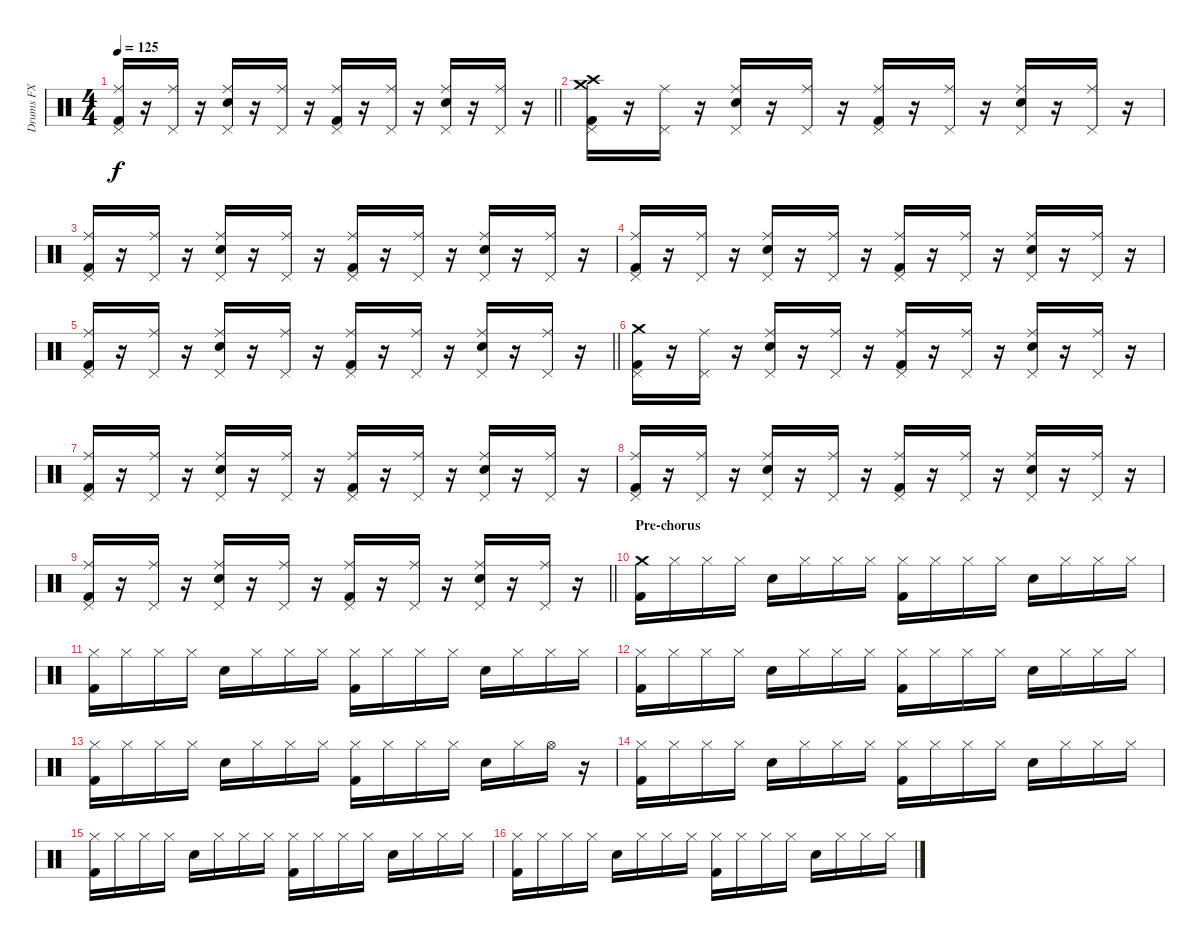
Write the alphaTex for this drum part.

\track ("Drums FX" "Drums FX") {instrument percussion}
\staff {score}
\articulation defaults
\ts (4 4)
\tempo 125
\clef neutral
\barLineRight lightlight
\ks c
("Ride (middle)" "Pedal Hi-Hat (hit)" "Kick (hit) 2").16{dy f} r.16 ("Ride (middle)" "Pedal Hi-Hat (hit)").16 r.16 ("Ride (middle)" "Snare (hit) 2" "Pedal Hi-Hat (hit)").16 r.16 ("Ride (middle)" "Pedal Hi-Hat (hit)").16 r.16 ("Ride (middle)" "Pedal Hi-Hat (hit)" "Kick (hit) 2").16 r.16 ("Ride (middle)" "Pedal Hi-Hat (hit)").16 r.16 ("Ride (middle)" "Snare (hit) 2" "Pedal Hi-Hat (hit)").16 r.16 ("Ride (middle)" "Pedal Hi-Hat (hit)").16 r.16 |
("Crash medium (hit)" "Crash high (hit)" "Pedal Hi-Hat (hit)" "Kick (hit) 2").16 r.16 ("Ride (middle)" "Pedal Hi-Hat (hit)").16 r.16 ("Ride (middle)" "Snare (hit) 2" "Pedal Hi-Hat (hit)").16 r.16 ("Ride (middle)" "Pedal Hi-Hat (hit)").16 r.16 ("Ride (middle)" "Pedal Hi-Hat (hit)" "Kick (hit) 2").16 r.16 ("Ride (middle)" "Pedal Hi-Hat (hit)").16 r.16 ("Ride (middle)" "Snare (hit) 2" "Pedal Hi-Hat (hit)").16 r.16 ("Ride (middle)" "Pedal Hi-Hat (hit)").16 r.16 |
("Ride (middle)" "Pedal Hi-Hat (hit)" "Kick (hit) 2").16 r.16 ("Ride (middle)" "Pedal Hi-Hat (hit)").16 r.16 ("Ride (middle)" "Snare (hit) 2" "Pedal Hi-Hat (hit)").16 r.16 ("Ride (middle)" "Pedal Hi-Hat (hit)").16 r.16 ("Ride (middle)" "Pedal Hi-Hat (hit)" "Kick (hit) 2").16 r.16 ("Ride (middle)" "Pedal Hi-Hat (hit)").16 r.16 ("Ride (middle)" "Snare (hit) 2" "Pedal Hi-Hat (hit)").16 r.16 ("Ride (middle)" "Pedal Hi-Hat (hit)").16 r.16 |
("Ride (middle)" "Pedal Hi-Hat (hit)" "Kick (hit) 2").16 r.16 ("Ride (middle)" "Pedal Hi-Hat (hit)").16 r.16 ("Ride (middle)" "Snare (hit) 2" "Pedal Hi-Hat (hit)").16 r.16 ("Ride (middle)" "Pedal Hi-Hat (hit)").16 r.16 ("Ride (middle)" "Pedal Hi-Hat (hit)" "Kick (hit) 2").16 r.16 ("Ride (middle)" "Pedal Hi-Hat (hit)").16 r.16 ("Ride (middle)" "Snare (hit) 2" "Pedal Hi-Hat (hit)").16 r.16 ("Ride (middle)" "Pedal Hi-Hat (hit)").16 r.16 |
\barLineRight lightlight
("Ride (middle)" "Pedal Hi-Hat (hit)" "Kick (hit) 2").16 r.16 ("Ride (middle)" "Pedal Hi-Hat (hit)").16 r.16 ("Ride (middle)" "Snare (hit) 2" "Pedal Hi-Hat (hit)").16 r.16 ("Ride (middle)" "Pedal Hi-Hat (hit)").16 r.16 ("Ride (middle)" "Pedal Hi-Hat (hit)" "Kick (hit) 2").16 r.16 ("Ride (middle)" "Pedal Hi-Hat (hit)").16 r.16 ("Ride (middle)" "Snare (hit) 2" "Pedal Hi-Hat (hit)").16 r.16 ("Ride (middle)" "Pedal Hi-Hat (hit)").16 r.16 |
("Crash medium (hit)" "Pedal Hi-Hat (hit)" "Kick (hit) 2").16 r.16 ("Ride (middle)" "Pedal Hi-Hat (hit)").16 r.16 ("Ride (middle)" "Snare (hit) 2" "Pedal Hi-Hat (hit)").16 r.16 ("Ride (middle)" "Pedal Hi-Hat (hit)").16 r.16 ("Ride (middle)" "Pedal Hi-Hat (hit)" "Kick (hit) 2").16 r.16 ("Ride (middle)" "Pedal Hi-Hat (hit)").16 r.16 ("Ride (middle)" "Snare (hit) 2" "Pedal Hi-Hat (hit)").16 r.16 ("Ride (middle)" "Pedal Hi-Hat (hit)").16 r.16 |
("Ride (middle)" "Pedal Hi-Hat (hit)" "Kick (hit) 2").16 r.16 ("Ride (middle)" "Pedal Hi-Hat (hit)").16 r.16 ("Ride (middle)" "Snare (hit) 2" "Pedal Hi-Hat (hit)").16 r.16 ("Ride (middle)" "Pedal Hi-Hat (hit)").16 r.16 ("Ride (middle)" "Pedal Hi-Hat (hit)" "Kick (hit) 2").16 r.16 ("Ride (middle)" "Pedal Hi-Hat (hit)").16 r.16 ("Ride (middle)" "Snare (hit) 2" "Pedal Hi-Hat (hit)").16 r.16 ("Ride (middle)" "Pedal Hi-Hat (hit)").16 r.16 |
("Ride (middle)" "Pedal Hi-Hat (hit)" "Kick (hit) 2").16 r.16 ("Ride (middle)" "Pedal Hi-Hat (hit)").16 r.16 ("Ride (middle)" "Snare (hit) 2" "Pedal Hi-Hat (hit)").16 r.16 ("Ride (middle)" "Pedal Hi-Hat (hit)").16 r.16 ("Ride (middle)" "Pedal Hi-Hat (hit)" "Kick (hit) 2").16 r.16 ("Ride (middle)" "Pedal Hi-Hat (hit)").16 r.16 ("Ride (middle)" "Snare (hit) 2" "Pedal Hi-Hat (hit)").16 r.16 ("Ride (middle)" "Pedal Hi-Hat (hit)").16 r.16 |
\barLineRight lightlight
("Ride (middle)" "Pedal Hi-Hat (hit)" "Kick (hit) 2").16 r.16 ("Ride (middle)" "Pedal Hi-Hat (hit)").16 r.16 ("Ride (middle)" "Snare (hit) 2" "Pedal Hi-Hat (hit)").16 r.16 ("Ride (middle)" "Pedal Hi-Hat (hit)").16 r.16 ("Ride (middle)" "Pedal Hi-Hat (hit)" "Kick (hit) 2").16 r.16 ("Ride (middle)" "Pedal Hi-Hat (hit)").16 r.16 ("Ride (middle)" "Snare (hit) 2" "Pedal Hi-Hat (hit)").16 r.16 ("Ride (middle)" "Pedal Hi-Hat (hit)").16 r.16 |
\section ("" "Pre-chorus")
("Crash medium (hit)" "Kick (hit) 2").16 "Hi-Hat (closed)".16 "Hi-Hat (closed)".16 "Hi-Hat (closed)".16 "Snare (hit) 2".16 "Hi-Hat (closed)".16 "Hi-Hat (closed)".16 "Hi-Hat (closed)".16 ("Hi-Hat (closed)" "Kick (hit) 2").16 "Hi-Hat (closed)".16 "Hi-Hat (closed)".16 "Hi-Hat (closed)".16 "Snare (hit) 2".16 "Hi-Hat (closed)".16 "Hi-Hat (closed)".16 "Hi-Hat (closed)".16 |
("Hi-Hat (closed)" "Kick (hit) 2").16 "Hi-Hat (closed)".16 "Hi-Hat (closed)".16 "Hi-Hat (closed)".16 "Snare (hit) 2".16 "Hi-Hat (closed)".16 "Hi-Hat (closed)".16 "Hi-Hat (closed)".16 ("Hi-Hat (closed)" "Kick (hit) 2").16 "Hi-Hat (closed)".16 "Hi-Hat (closed)".16 "Hi-Hat (closed)".16 "Snare (hit) 2".16 "Hi-Hat (closed)".16 "Hi-Hat (closed)".16 "Hi-Hat (closed)".16 |
("Hi-Hat (closed)" "Kick (hit) 2").16 "Hi-Hat (closed)".16 "Hi-Hat (closed)".16 "Hi-Hat (closed)".16 "Snare (hit) 2".16 "Hi-Hat (closed)".16 "Hi-Hat (closed)".16 "Hi-Hat (closed)".16 ("Hi-Hat (closed)" "Kick (hit) 2").16 "Hi-Hat (closed)".16 "Hi-Hat (closed)".16 "Hi-Hat (closed)".16 "Snare (hit) 2".16 "Hi-Hat (closed)".16 "Hi-Hat (closed)".16 "Hi-Hat (closed)".16 |
("Hi-Hat (closed)" "Kick (hit) 2").16 "Hi-Hat (closed)".16 "Hi-Hat (closed)".16 "Hi-Hat (closed)".16 "Snare (hit) 2".16 "Hi-Hat (closed)".16 "Hi-Hat (closed)".16 "Hi-Hat (closed)".16 ("Hi-Hat (closed)" "Kick (hit) 2").16 "Hi-Hat (closed)".16 "Hi-Hat (closed)".16 "Hi-Hat (closed)".16 "Snare (hit) 2".16 "Hi-Hat (closed)".16 "Hi-Hat (open)".16 r.16 |
("Hi-Hat (closed)" "Kick (hit) 2").16 "Hi-Hat (closed)".16 "Hi-Hat (closed)".16 "Hi-Hat (closed)".16 "Snare (hit) 2".16 "Hi-Hat (closed)".16 "Hi-Hat (closed)".16 "Hi-Hat (closed)".16 ("Hi-Hat (closed)" "Kick (hit) 2").16 "Hi-Hat (closed)".16 "Hi-Hat (closed)".16 "Hi-Hat (closed)".16 "Snare (hit) 2".16 "Hi-Hat (closed)".16 "Hi-Hat (closed)".16 "Hi-Hat (closed)".16 |
("Hi-Hat (closed)" "Kick (hit) 2").16 "Hi-Hat (closed)".16 "Hi-Hat (closed)".16 "Hi-Hat (closed)".16 "Snare (hit) 2".16 "Hi-Hat (closed)".16 "Hi-Hat (closed)".16 "Hi-Hat (closed)".16 ("Hi-Hat (closed)" "Kick (hit) 2").16 "Hi-Hat (closed)".16 "Hi-Hat (closed)".16 "Hi-Hat (closed)".16 "Snare (hit) 2".16 "Hi-Hat (closed)".16 "Hi-Hat (closed)".16 "Hi-Hat (closed)".16 |
("Hi-Hat (closed)" "Kick (hit) 2").16 "Hi-Hat (closed)".16 "Hi-Hat (closed)".16 "Hi-Hat (closed)".16 "Snare (hit) 2".16 "Hi-Hat (closed)".16 "Hi-Hat (closed)".16 "Hi-Hat (closed)".16 ("Hi-Hat (closed)" "Kick (hit) 2").16 "Hi-Hat (closed)".16 "Hi-Hat (closed)".16 "Hi-Hat (closed)".16 "Snare (hit) 2".16 "Hi-Hat (closed)".16 "Hi-Hat (closed)".16 "Hi-Hat (closed)".16
